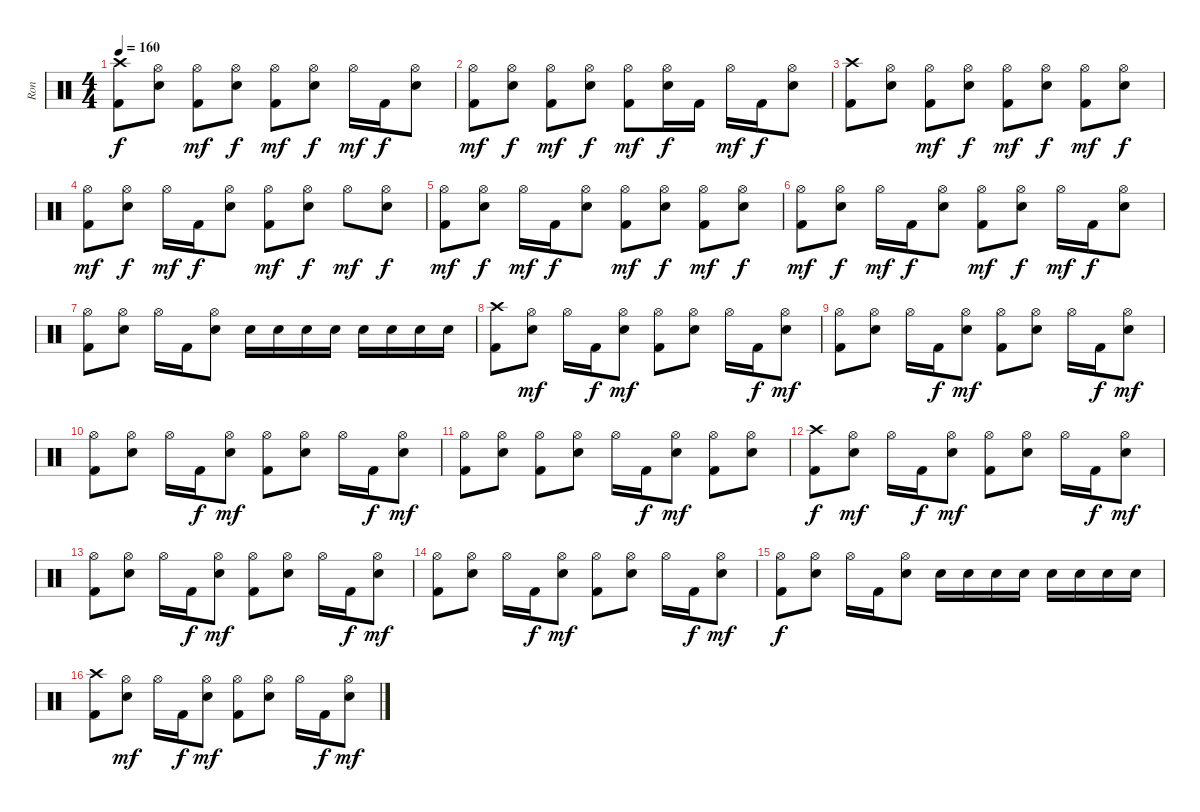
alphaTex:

\track ("Ron" "Ron") {instrument percussion}
\staff {score}
\articulation defaults
\ts (4 4)
\tempo 160
\clef neutral
\ks c
("Crash high (hit)" "Kick (hit) 2").8{dy f} ("Hi-Hat (open)" "Electric Snare (hit)").8 ("Hi-Hat (open)" "Kick (hit) 2").8{dy mf} ("Hi-Hat (open)" "Electric Snare (hit)").8{dy f} ("Hi-Hat (open)" "Kick (hit) 2").8{dy mf} ("Hi-Hat (open)" "Electric Snare (hit)").8{dy f} "Hi-Hat (open)".16{dy mf} "Kick (hit) 2".16{dy f} ("Hi-Hat (open)" "Electric Snare (hit)").8 |
("Hi-Hat (open)" "Kick (hit) 2").8{dy mf} ("Hi-Hat (open)" "Electric Snare (hit)").8{dy f} ("Hi-Hat (open)" "Kick (hit) 2").8{dy mf} ("Hi-Hat (open)" "Electric Snare (hit)").8{dy f} ("Hi-Hat (open)" "Kick (hit) 2").8{dy mf} ("Hi-Hat (open)" "Electric Snare (hit)").16{dy f} "Kick (hit) 2".16 "Hi-Hat (open)".16{dy mf} "Kick (hit) 2".16{dy f} ("Hi-Hat (open)" "Electric Snare (hit)").8 |
("Crash high (hit)" "Kick (hit) 2").8 ("Hi-Hat (open)" "Electric Snare (hit)").8 ("Hi-Hat (open)" "Kick (hit) 2").8{dy mf} ("Hi-Hat (open)" "Electric Snare (hit)").8{dy f} ("Hi-Hat (open)" "Kick (hit) 2").8{dy mf} ("Hi-Hat (open)" "Electric Snare (hit)").8{dy f} ("Hi-Hat (open)" "Kick (hit) 2").8{dy mf} ("Hi-Hat (open)" "Electric Snare (hit)").8{dy f} |
("Hi-Hat (open)" "Kick (hit) 2").8{dy mf} ("Hi-Hat (open)" "Electric Snare (hit)").8{dy f} "Hi-Hat (open)".16{dy mf} "Kick (hit) 2".16{dy f} ("Hi-Hat (open)" "Electric Snare (hit)").8 ("Hi-Hat (open)" "Kick (hit) 2").8{dy mf} ("Hi-Hat (open)" "Electric Snare (hit)").8{dy f} "Hi-Hat (open)".8{dy mf} ("Hi-Hat (open)" "Electric Snare (hit)").8{dy f} |
("Hi-Hat (open)" "Kick (hit) 2").8{dy mf} ("Hi-Hat (open)" "Electric Snare (hit)").8{dy f} "Hi-Hat (open)".16{dy mf} "Kick (hit) 2".16{dy f} ("Hi-Hat (open)" "Electric Snare (hit)").8 ("Hi-Hat (open)" "Kick (hit) 2").8{dy mf} ("Hi-Hat (open)" "Electric Snare (hit)").8{dy f} ("Hi-Hat (open)" "Kick (hit) 2").8{dy mf} ("Hi-Hat (open)" "Electric Snare (hit)").8{dy f} |
("Hi-Hat (open)" "Kick (hit) 2").8{dy mf} ("Hi-Hat (open)" "Electric Snare (hit)").8{dy f} "Hi-Hat (open)".16{dy mf} "Kick (hit) 2".16{dy f} ("Hi-Hat (open)" "Electric Snare (hit)").8 ("Hi-Hat (open)" "Kick (hit) 2").8{dy mf} ("Hi-Hat (open)" "Electric Snare (hit)").8{dy f} "Hi-Hat (open)".16{dy mf} "Kick (hit) 2".16{dy f} ("Hi-Hat (open)" "Electric Snare (hit)").8 |
("Hi-Hat (open)" "Kick (hit) 2").8 ("Hi-Hat (open)" "Electric Snare (hit)").8 "Hi-Hat (open)".16 "Kick (hit) 2".16 ("Hi-Hat (open)" "Electric Snare (hit)").8 "Electric Snare (hit)".16 "Electric Snare (hit)".16 "Electric Snare (hit)".16 "Electric Snare (hit)".16 "Electric Snare (hit)".16 "Electric Snare (hit)".16 "Electric Snare (hit)".16 "Electric Snare (hit)".16 |
("Crash high (hit)" "Kick (hit) 2").8 ("Hi-Hat (open)" "Electric Snare (hit)").8{dy mf} "Hi-Hat (open)".16 "Kick (hit) 2".16{dy f} ("Hi-Hat (open)" "Electric Snare (hit)").8{dy mf} ("Hi-Hat (open)" "Kick (hit) 2").8 ("Hi-Hat (open)" "Electric Snare (hit)").8 "Hi-Hat (open)".16 "Kick (hit) 2".16{dy f} ("Hi-Hat (open)" "Electric Snare (hit)").8{dy mf} |
("Hi-Hat (open)" "Kick (hit) 2").8 ("Hi-Hat (open)" "Electric Snare (hit)").8 "Hi-Hat (open)".16 "Kick (hit) 2".16{dy f} ("Hi-Hat (open)" "Electric Snare (hit)").8{dy mf} ("Hi-Hat (open)" "Kick (hit) 2").8 ("Hi-Hat (open)" "Electric Snare (hit)").8 "Hi-Hat (open)".16 "Kick (hit) 2".16{dy f} ("Hi-Hat (open)" "Electric Snare (hit)").8{dy mf} |
("Hi-Hat (open)" "Kick (hit) 2").8 ("Hi-Hat (open)" "Electric Snare (hit)").8 "Hi-Hat (open)".16 "Kick (hit) 2".16{dy f} ("Hi-Hat (open)" "Electric Snare (hit)").8{dy mf} ("Hi-Hat (open)" "Kick (hit) 2").8 ("Hi-Hat (open)" "Electric Snare (hit)").8 "Hi-Hat (open)".16 "Kick (hit) 2".16{dy f} ("Hi-Hat (open)" "Electric Snare (hit)").8{dy mf} |
("Hi-Hat (open)" "Kick (hit) 2").8 ("Hi-Hat (open)" "Electric Snare (hit)").8 ("Hi-Hat (open)" "Kick (hit) 2").8 ("Hi-Hat (open)" "Electric Snare (hit)").8 "Hi-Hat (open)".16 "Kick (hit) 2".16{dy f} ("Hi-Hat (open)" "Electric Snare (hit)").8{dy mf} ("Hi-Hat (open)" "Kick (hit) 2").8 ("Hi-Hat (open)" "Electric Snare (hit)").8 |
("Crash high (hit)" "Kick (hit) 2").8{dy f} ("Hi-Hat (open)" "Electric Snare (hit)").8{dy mf} "Hi-Hat (open)".16 "Kick (hit) 2".16{dy f} ("Hi-Hat (open)" "Electric Snare (hit)").8{dy mf} ("Hi-Hat (open)" "Kick (hit) 2").8 ("Hi-Hat (open)" "Electric Snare (hit)").8 "Hi-Hat (open)".16 "Kick (hit) 2".16{dy f} ("Hi-Hat (open)" "Electric Snare (hit)").8{dy mf} |
("Hi-Hat (open)" "Kick (hit) 2").8 ("Hi-Hat (open)" "Electric Snare (hit)").8 "Hi-Hat (open)".16 "Kick (hit) 2".16{dy f} ("Hi-Hat (open)" "Electric Snare (hit)").8{dy mf} ("Hi-Hat (open)" "Kick (hit) 2").8 ("Hi-Hat (open)" "Electric Snare (hit)").8 "Hi-Hat (open)".16 "Kick (hit) 2".16{dy f} ("Hi-Hat (open)" "Electric Snare (hit)").8{dy mf} |
("Hi-Hat (open)" "Kick (hit) 2").8 ("Hi-Hat (open)" "Electric Snare (hit)").8 "Hi-Hat (open)".16 "Kick (hit) 2".16{dy f} ("Hi-Hat (open)" "Electric Snare (hit)").8{dy mf} ("Hi-Hat (open)" "Kick (hit) 2").8 ("Hi-Hat (open)" "Electric Snare (hit)").8 "Hi-Hat (open)".16 "Kick (hit) 2".16{dy f} ("Hi-Hat (open)" "Electric Snare (hit)").8{dy mf} |
("Hi-Hat (open)" "Kick (hit) 2").8{dy f} ("Hi-Hat (open)" "Electric Snare (hit)").8 "Hi-Hat (open)".16 "Kick (hit) 2".16 ("Hi-Hat (open)" "Electric Snare (hit)").8 "Electric Snare (hit)".16 "Electric Snare (hit)".16 "Electric Snare (hit)".16 "Electric Snare (hit)".16 "Electric Snare (hit)".16 "Electric Snare (hit)".16 "Electric Snare (hit)".16 "Electric Snare (hit)".16 |
("Crash high (hit)" "Kick (hit) 2").8 ("Hi-Hat (open)" "Electric Snare (hit)").8{dy mf} "Hi-Hat (open)".16 "Kick (hit) 2".16{dy f} ("Hi-Hat (open)" "Electric Snare (hit)").8{dy mf} ("Hi-Hat (open)" "Kick (hit) 2").8 ("Hi-Hat (open)" "Electric Snare (hit)").8 "Hi-Hat (open)".16 "Kick (hit) 2".16{dy f} ("Hi-Hat (open)" "Electric Snare (hit)").8{dy mf}
